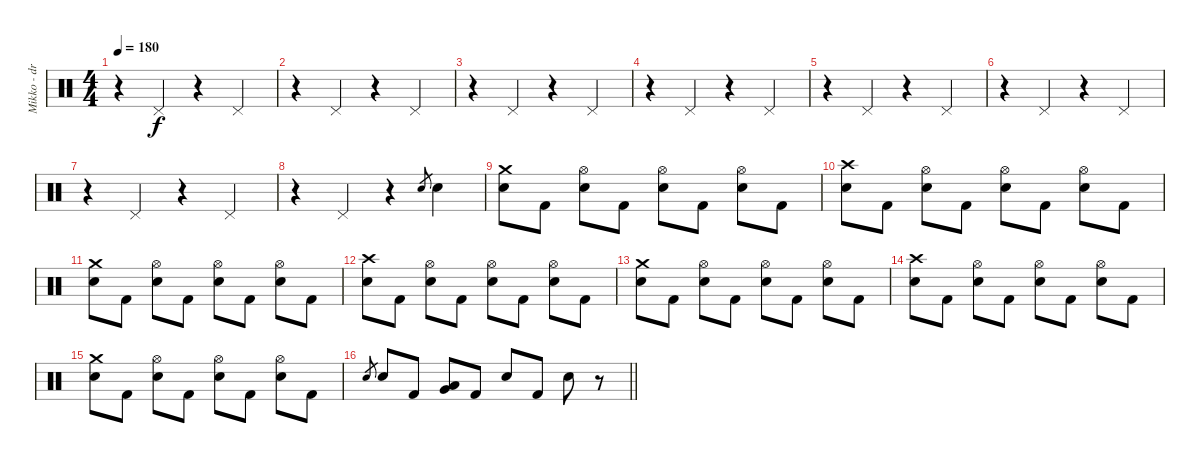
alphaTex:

\track ("Mikko - drums" "Mikko - dr") {instrument percussion}
\staff {score}
\articulation defaults
\ts (4 4)
\tempo 180
\clef neutral
\ks c
r.4{dy f} "Pedal Hi-Hat (hit)".4 r.4 "Pedal Hi-Hat (hit)".4 |
r.4 "Pedal Hi-Hat (hit)".4 r.4 "Pedal Hi-Hat (hit)".4 |
r.4 "Pedal Hi-Hat (hit)".4 r.4 "Pedal Hi-Hat (hit)".4 |
r.4 "Pedal Hi-Hat (hit)".4 r.4 "Pedal Hi-Hat (hit)".4 |
r.4 "Pedal Hi-Hat (hit)".4 r.4 "Pedal Hi-Hat (hit)".4 |
r.4 "Pedal Hi-Hat (hit)".4 r.4 "Pedal Hi-Hat (hit)".4 |
r.4 "Pedal Hi-Hat (hit)".4 r.4 "Pedal Hi-Hat (hit)".4 |
r.4 "Pedal Hi-Hat (hit)".4 r.4 "Snare (hit) 2".8{gr} "Snare (hit) 2".4 |
("Crash medium (hit)" "Snare (hit) 2").8 "Kick (hit) 2".8 ("Hi-Hat (open)" "Snare (hit) 2").8 "Kick (hit) 2".8 ("Hi-Hat (open)" "Snare (hit) 2").8 "Kick (hit) 2".8 ("Hi-Hat (open)" "Snare (hit) 2").8 "Kick (hit) 2".8 |
("Crash high (hit)" "Snare (hit) 2").8 "Kick (hit) 2".8 ("Hi-Hat (open)" "Snare (hit) 2").8 "Kick (hit) 2".8 ("Hi-Hat (open)" "Snare (hit) 2").8 "Kick (hit) 2".8 ("Hi-Hat (open)" "Snare (hit) 2").8 "Kick (hit) 2".8 |
("Crash medium (hit)" "Snare (hit) 2").8 "Kick (hit) 2".8 ("Hi-Hat (open)" "Snare (hit) 2").8 "Kick (hit) 2".8 ("Hi-Hat (open)" "Snare (hit) 2").8 "Kick (hit) 2".8 ("Hi-Hat (open)" "Snare (hit) 2").8 "Kick (hit) 2".8 |
("Crash high (hit)" "Snare (hit) 2").8 "Kick (hit) 2".8 ("Hi-Hat (open)" "Snare (hit) 2").8 "Kick (hit) 2".8 ("Hi-Hat (open)" "Snare (hit) 2").8 "Kick (hit) 2".8 ("Hi-Hat (open)" "Snare (hit) 2").8 "Kick (hit) 2".8 |
("Crash medium (hit)" "Snare (hit) 2").8 "Kick (hit) 2".8 ("Hi-Hat (open)" "Snare (hit) 2").8 "Kick (hit) 2".8 ("Hi-Hat (open)" "Snare (hit) 2").8 "Kick (hit) 2".8 ("Hi-Hat (open)" "Snare (hit) 2").8 "Kick (hit) 2".8 |
("Crash high (hit)" "Snare (hit) 2").8 "Kick (hit) 2".8 ("Hi-Hat (open)" "Snare (hit) 2").8 "Kick (hit) 2".8 ("Hi-Hat (open)" "Snare (hit) 2").8 "Kick (hit) 2".8 ("Hi-Hat (open)" "Snare (hit) 2").8 "Kick (hit) 2".8 |
("Crash medium (hit)" "Snare (hit) 2").8 "Kick (hit) 2".8 ("Hi-Hat (open)" "Snare (hit) 2").8 "Kick (hit) 2".8 ("Hi-Hat (open)" "Snare (hit) 2").8 "Kick (hit) 2".8 ("Hi-Hat (open)" "Snare (hit) 2").8 "Kick (hit) 2".8 |
\barLineRight lightlight "Snare (hit) 2".8{gr} "Snare (hit) 2".8 "Kick (hit) 2".8
("Low Tom (hit)" "Very Low Tom (hit)").8 "Kick (hit) 2".8 "Snare (hit) 2".8 "Kick (hit) 2".8 "Snare (hit) 2".8 r.8
